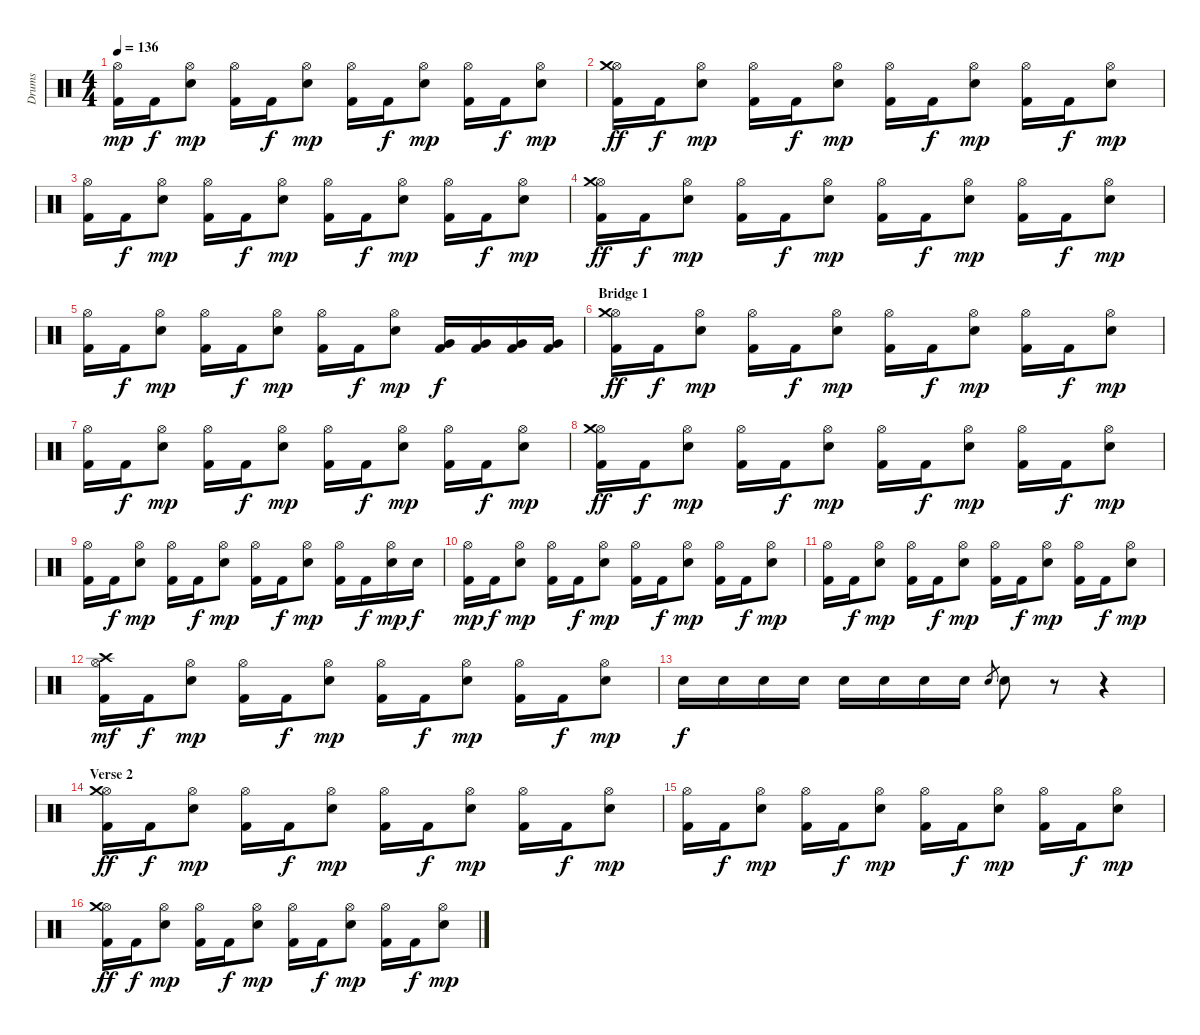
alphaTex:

\track ("Drums" "Drums") {instrument percussion}
\staff {score}
\articulation defaults
\ts (4 4)
\tempo 136
\clef neutral
\ks c
("Kick (hit) 2" "Hi-Hat (open)").16{dy mp} "Kick (hit) 2".16{dy f} ("Hi-Hat (open)" "Snare (hit) 2").8{dy mp} ("Kick (hit) 2" "Hi-Hat (open)").16 "Kick (hit) 2".16{dy f} ("Hi-Hat (open)" "Snare (hit) 2").8{dy mp} ("Kick (hit) 2" "Hi-Hat (open)").16 "Kick (hit) 2".16{dy f} ("Hi-Hat (open)" "Snare (hit) 2").8{dy mp} ("Kick (hit) 2" "Hi-Hat (open)").16 "Kick (hit) 2".16{dy f} ("Hi-Hat (open)" "Snare (hit) 2").8{dy mp} |
("Kick (hit) 2" "Hi-Hat (open)" "Crash medium (hit)").16{dy ff} "Kick (hit) 2".16{dy f} ("Hi-Hat (open)" "Snare (hit) 2").8{dy mp} ("Kick (hit) 2" "Hi-Hat (open)").16 "Kick (hit) 2".16{dy f} ("Hi-Hat (open)" "Snare (hit) 2").8{dy mp} ("Kick (hit) 2" "Hi-Hat (open)").16 "Kick (hit) 2".16{dy f} ("Hi-Hat (open)" "Snare (hit) 2").8{dy mp} ("Kick (hit) 2" "Hi-Hat (open)").16 "Kick (hit) 2".16{dy f} ("Hi-Hat (open)" "Snare (hit) 2").8{dy mp} |
("Kick (hit) 2" "Hi-Hat (open)").16 "Kick (hit) 2".16{dy f} ("Hi-Hat (open)" "Snare (hit) 2").8{dy mp} ("Kick (hit) 2" "Hi-Hat (open)").16 "Kick (hit) 2".16{dy f} ("Hi-Hat (open)" "Snare (hit) 2").8{dy mp} ("Kick (hit) 2" "Hi-Hat (open)").16 "Kick (hit) 2".16{dy f} ("Hi-Hat (open)" "Snare (hit) 2").8{dy mp} ("Kick (hit) 2" "Hi-Hat (open)").16 "Kick (hit) 2".16{dy f} ("Hi-Hat (open)" "Snare (hit) 2").8{dy mp} |
("Kick (hit) 2" "Hi-Hat (open)" "Crash medium (hit)").16{dy ff} "Kick (hit) 2".16{dy f} ("Hi-Hat (open)" "Snare (hit) 2").8{dy mp} ("Kick (hit) 2" "Hi-Hat (open)").16 "Kick (hit) 2".16{dy f} ("Hi-Hat (open)" "Snare (hit) 2").8{dy mp} ("Kick (hit) 2" "Hi-Hat (open)").16 "Kick (hit) 2".16{dy f} ("Hi-Hat (open)" "Snare (hit) 2").8{dy mp} ("Kick (hit) 2" "Hi-Hat (open)").16 "Kick (hit) 2".16{dy f} ("Hi-Hat (open)" "Snare (hit) 2").8{dy mp} |
("Kick (hit) 2" "Hi-Hat (open)").16 "Kick (hit) 2".16{dy f} ("Hi-Hat (open)" "Snare (hit) 2").8{dy mp} ("Kick (hit) 2" "Hi-Hat (open)").16 "Kick (hit) 2".16{dy f} ("Hi-Hat (open)" "Snare (hit) 2").8{dy mp} ("Kick (hit) 2" "Hi-Hat (open)").16 "Kick (hit) 2".16{dy f} ("Hi-Hat (open)" "Snare (hit) 2").8{dy mp} ("Kick (hit) 2" "Very Low Tom (hit)").16{dy f} ("Kick (hit) 2" "Very Low Tom (hit)").16 ("Kick (hit) 2" "Very Low Tom (hit)").16 ("Kick (hit) 2" "Very Low Tom (hit)").16 |
\section ("" "Bridge 1")
("Kick (hit) 2" "Hi-Hat (open)" "Crash medium (hit)").16{dy ff} "Kick (hit) 2".16{dy f} ("Hi-Hat (open)" "Snare (hit) 2").8{dy mp} ("Kick (hit) 2" "Hi-Hat (open)").16 "Kick (hit) 2".16{dy f} ("Hi-Hat (open)" "Snare (hit) 2").8{dy mp} ("Kick (hit) 2" "Hi-Hat (open)").16 "Kick (hit) 2".16{dy f} ("Hi-Hat (open)" "Snare (hit) 2").8{dy mp} ("Kick (hit) 2" "Hi-Hat (open)").16 "Kick (hit) 2".16{dy f} ("Hi-Hat (open)" "Snare (hit) 2").8{dy mp} |
("Kick (hit) 2" "Hi-Hat (open)").16 "Kick (hit) 2".16{dy f} ("Hi-Hat (open)" "Snare (hit) 2").8{dy mp} ("Kick (hit) 2" "Hi-Hat (open)").16 "Kick (hit) 2".16{dy f} ("Hi-Hat (open)" "Snare (hit) 2").8{dy mp} ("Kick (hit) 2" "Hi-Hat (open)").16 "Kick (hit) 2".16{dy f} ("Hi-Hat (open)" "Snare (hit) 2").8{dy mp} ("Kick (hit) 2" "Hi-Hat (open)").16 "Kick (hit) 2".16{dy f} ("Hi-Hat (open)" "Snare (hit) 2").8{dy mp} |
("Kick (hit) 2" "Hi-Hat (open)" "Crash medium (hit)").16{dy ff} "Kick (hit) 2".16{dy f} ("Hi-Hat (open)" "Snare (hit) 2").8{dy mp} ("Kick (hit) 2" "Hi-Hat (open)").16 "Kick (hit) 2".16{dy f} ("Hi-Hat (open)" "Snare (hit) 2").8{dy mp} ("Kick (hit) 2" "Hi-Hat (open)").16 "Kick (hit) 2".16{dy f} ("Hi-Hat (open)" "Snare (hit) 2").8{dy mp} ("Kick (hit) 2" "Hi-Hat (open)").16 "Kick (hit) 2".16{dy f} ("Hi-Hat (open)" "Snare (hit) 2").8{dy mp} |
("Kick (hit) 2" "Hi-Hat (open)").16 "Kick (hit) 2".16{dy f} ("Hi-Hat (open)" "Snare (hit) 2").8{dy mp} ("Kick (hit) 2" "Hi-Hat (open)").16 "Kick (hit) 2".16{dy f} ("Hi-Hat (open)" "Snare (hit) 2").8{dy mp} ("Kick (hit) 2" "Hi-Hat (open)").16 "Kick (hit) 2".16{dy f} ("Hi-Hat (open)" "Snare (hit) 2").8{dy mp} ("Kick (hit) 2" "Hi-Hat (open)").16 "Kick (hit) 2".16{dy f} ("Hi-Hat (open)" "Snare (hit) 2").16{dy mp} "Snare (hit) 2".16{dy f} |
("Kick (hit) 2" "Hi-Hat (open)").16{dy mp} "Kick (hit) 2".16{dy f} ("Hi-Hat (open)" "Snare (hit) 2").8{dy mp} ("Kick (hit) 2" "Hi-Hat (open)").16 "Kick (hit) 2".16{dy f} ("Hi-Hat (open)" "Snare (hit) 2").8{dy mp} ("Kick (hit) 2" "Hi-Hat (open)").16 "Kick (hit) 2".16{dy f} ("Hi-Hat (open)" "Snare (hit) 2").8{dy mp} ("Kick (hit) 2" "Hi-Hat (open)").16 "Kick (hit) 2".16{dy f} ("Hi-Hat (open)" "Snare (hit) 2").8{dy mp} |
("Kick (hit) 2" "Hi-Hat (open)").16 "Kick (hit) 2".16{dy f} ("Hi-Hat (open)" "Snare (hit) 2").8{dy mp} ("Kick (hit) 2" "Hi-Hat (open)").16 "Kick (hit) 2".16{dy f} ("Hi-Hat (open)" "Snare (hit) 2").8{dy mp} ("Kick (hit) 2" "Hi-Hat (open)").16 "Kick (hit) 2".16{dy f} ("Hi-Hat (open)" "Snare (hit) 2").8{dy mp} ("Kick (hit) 2" "Hi-Hat (open)").16 "Kick (hit) 2".16{dy f} ("Hi-Hat (open)" "Snare (hit) 2").8{dy mp} |
("Kick (hit) 2" "Hi-Hat (open)" "Crash high (hit)").16{dy mf} "Kick (hit) 2".16{dy f} ("Hi-Hat (open)" "Snare (hit) 2").8{dy mp} ("Kick (hit) 2" "Hi-Hat (open)").16 "Kick (hit) 2".16{dy f} ("Hi-Hat (open)" "Snare (hit) 2").8{dy mp} ("Kick (hit) 2" "Hi-Hat (open)").16 "Kick (hit) 2".16{dy f} ("Hi-Hat (open)" "Snare (hit) 2").8{dy mp} ("Kick (hit) 2" "Hi-Hat (open)").16 "Kick (hit) 2".16{dy f} ("Hi-Hat (open)" "Snare (hit) 2").8{dy mp} |
"Snare (hit) 2".16{dy f} "Snare (hit) 2".16 "Snare (hit) 2".16 "Snare (hit) 2".16 "Snare (hit) 2".16 "Snare (hit) 2".16 "Snare (hit) 2".16 "Snare (hit) 2".16 "Snare (hit) 2".8{gr} "Snare (hit) 2".8 r.8 r.4 |
\section ("" "Verse 2")
("Kick (hit) 2" "Hi-Hat (open)" "Crash medium (hit)").16{dy ff} "Kick (hit) 2".16{dy f} ("Hi-Hat (open)" "Snare (hit) 2").8{dy mp} ("Kick (hit) 2" "Hi-Hat (open)").16 "Kick (hit) 2".16{dy f} ("Hi-Hat (open)" "Snare (hit) 2").8{dy mp} ("Kick (hit) 2" "Hi-Hat (open)").16 "Kick (hit) 2".16{dy f} ("Hi-Hat (open)" "Snare (hit) 2").8{dy mp} ("Kick (hit) 2" "Hi-Hat (open)").16 "Kick (hit) 2".16{dy f} ("Hi-Hat (open)" "Snare (hit) 2").8{dy mp} |
("Kick (hit) 2" "Hi-Hat (open)").16 "Kick (hit) 2".16{dy f} ("Hi-Hat (open)" "Snare (hit) 2").8{dy mp} ("Kick (hit) 2" "Hi-Hat (open)").16 "Kick (hit) 2".16{dy f} ("Hi-Hat (open)" "Snare (hit) 2").8{dy mp} ("Kick (hit) 2" "Hi-Hat (open)").16 "Kick (hit) 2".16{dy f} ("Hi-Hat (open)" "Snare (hit) 2").8{dy mp} ("Kick (hit) 2" "Hi-Hat (open)").16 "Kick (hit) 2".16{dy f} ("Hi-Hat (open)" "Snare (hit) 2").8{dy mp} |
("Kick (hit) 2" "Hi-Hat (open)" "Crash medium (hit)").16{dy ff} "Kick (hit) 2".16{dy f} ("Hi-Hat (open)" "Snare (hit) 2").8{dy mp} ("Kick (hit) 2" "Hi-Hat (open)").16 "Kick (hit) 2".16{dy f} ("Hi-Hat (open)" "Snare (hit) 2").8{dy mp} ("Kick (hit) 2" "Hi-Hat (open)").16 "Kick (hit) 2".16{dy f} ("Hi-Hat (open)" "Snare (hit) 2").8{dy mp} ("Kick (hit) 2" "Hi-Hat (open)").16 "Kick (hit) 2".16{dy f} ("Hi-Hat (open)" "Snare (hit) 2").8{dy mp}
